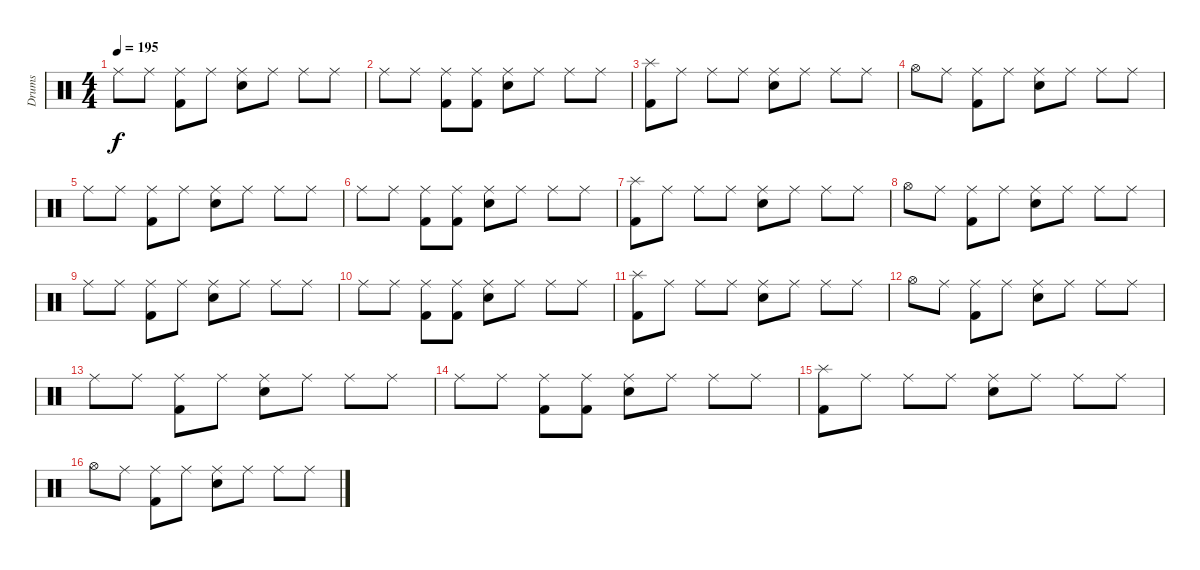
\track ("Drums" "Drums") {instrument percussion}
\staff {score}
\articulation defaults
\ts (4 4)
\tempo 195
\clef neutral
\ks c "Ride (middle)".8{dy f} "Ride (middle)".8
("Ride (middle)" "Kick (hit) 2").8 "Ride (middle)".8 ("Ride (middle)" "Snare (hit) 2").8 "Ride (middle)".8 "Ride (middle)".8 "Ride (middle)".8 |
"Ride (middle)".8 "Ride (middle)".8 ("Ride (middle)" "Kick (hit) 2").8 ("Ride (middle)" "Kick (hit) 2").8 ("Ride (middle)" "Snare (hit) 2").8 "Ride (middle)".8 "Ride (middle)".8 "Ride (middle)".8 |
("Splash (hit)" "Kick (hit) 2").8 "Ride (middle)".8 "Ride (middle)".8 "Ride (middle)".8 ("Ride (middle)" "Snare (hit) 2").8 "Ride (middle)".8 "Ride (middle)".8 "Ride (middle)".8 |
"Hi-Hat (open)".8 "Ride (middle)".8 ("Ride (middle)" "Kick (hit) 2").8 "Ride (middle)".8 ("Ride (middle)" "Snare (hit) 2").8 "Ride (middle)".8 "Ride (middle)".8 "Ride (middle)".8 |
"Ride (middle)".8 "Ride (middle)".8 ("Ride (middle)" "Kick (hit) 2").8 "Ride (middle)".8 ("Ride (middle)" "Snare (hit) 2").8 "Ride (middle)".8 "Ride (middle)".8 "Ride (middle)".8 |
"Ride (middle)".8 "Ride (middle)".8 ("Ride (middle)" "Kick (hit) 2").8 ("Ride (middle)" "Kick (hit) 2").8 ("Ride (middle)" "Snare (hit) 2").8 "Ride (middle)".8 "Ride (middle)".8 "Ride (middle)".8 |
("Splash (hit)" "Kick (hit) 2").8 "Ride (middle)".8 "Ride (middle)".8 "Ride (middle)".8 ("Ride (middle)" "Snare (hit) 2").8 "Ride (middle)".8 "Ride (middle)".8 "Ride (middle)".8 |
"Hi-Hat (open)".8 "Ride (middle)".8 ("Ride (middle)" "Kick (hit) 2").8 "Ride (middle)".8 ("Ride (middle)" "Snare (hit) 2").8 "Ride (middle)".8 "Ride (middle)".8 "Ride (middle)".8 |
"Ride (middle)".8 "Ride (middle)".8 ("Ride (middle)" "Kick (hit) 2").8 "Ride (middle)".8 ("Ride (middle)" "Snare (hit) 2").8 "Ride (middle)".8 "Ride (middle)".8 "Ride (middle)".8 |
"Ride (middle)".8 "Ride (middle)".8 ("Ride (middle)" "Kick (hit) 2").8 ("Ride (middle)" "Kick (hit) 2").8 ("Ride (middle)" "Snare (hit) 2").8 "Ride (middle)".8 "Ride (middle)".8 "Ride (middle)".8 |
("Splash (hit)" "Kick (hit) 2").8 "Ride (middle)".8 "Ride (middle)".8 "Ride (middle)".8 ("Ride (middle)" "Snare (hit) 2").8 "Ride (middle)".8 "Ride (middle)".8 "Ride (middle)".8 |
"Hi-Hat (open)".8 "Ride (middle)".8 ("Ride (middle)" "Kick (hit) 2").8 "Ride (middle)".8 ("Ride (middle)" "Snare (hit) 2").8 "Ride (middle)".8 "Ride (middle)".8 "Ride (middle)".8 |
"Ride (middle)".8 "Ride (middle)".8 ("Ride (middle)" "Kick (hit) 2").8 "Ride (middle)".8 ("Ride (middle)" "Snare (hit) 2").8 "Ride (middle)".8 "Ride (middle)".8 "Ride (middle)".8 |
"Ride (middle)".8 "Ride (middle)".8 ("Ride (middle)" "Kick (hit) 2").8 ("Ride (middle)" "Kick (hit) 2").8 ("Ride (middle)" "Snare (hit) 2").8 "Ride (middle)".8 "Ride (middle)".8 "Ride (middle)".8 |
("Splash (hit)" "Kick (hit) 2").8 "Ride (middle)".8 "Ride (middle)".8 "Ride (middle)".8 ("Ride (middle)" "Snare (hit) 2").8 "Ride (middle)".8 "Ride (middle)".8 "Ride (middle)".8 |
"Hi-Hat (open)".8 "Ride (middle)".8 ("Ride (middle)" "Kick (hit) 2").8 "Ride (middle)".8 ("Ride (middle)" "Snare (hit) 2").8 "Ride (middle)".8 "Ride (middle)".8 "Ride (middle)".8
